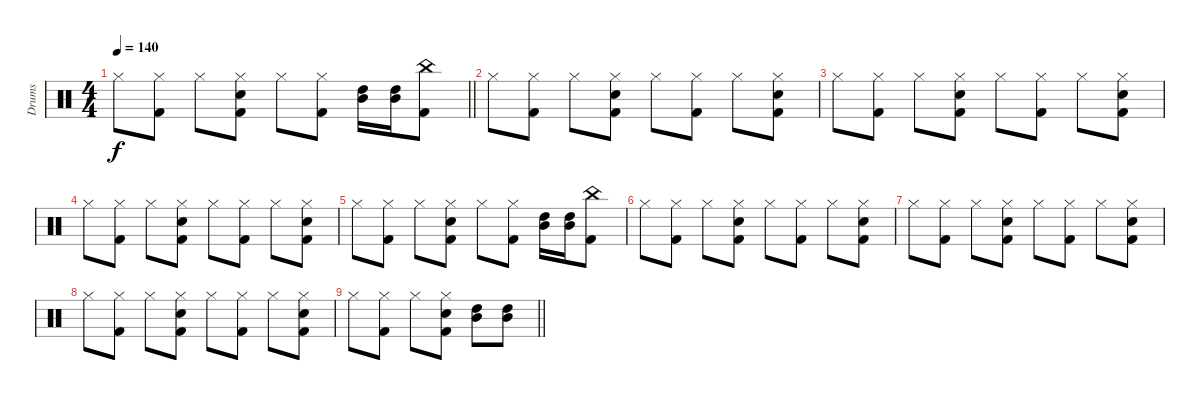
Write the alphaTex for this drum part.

\track ("Drums" "Drums") {instrument percussion}
\staff {score}
\articulation defaults
\ts (4 4)
\tempo 140
\clef neutral
\barLineRight lightlight
\ks c "Hi-Hat (closed)".8{dy f}
("Hi-Hat (closed)" "Kick (hit) 2").8 "Hi-Hat (closed)".8 ("Hi-Hat (closed)" "Snare (hit) 2" "Kick (hit) 2").8 "Hi-Hat (closed)".8 ("Hi-Hat (closed)" "Kick (hit) 2").8 ("Mid Tom (hit)" "High Tom (hit)").16 ("Mid Tom (hit)" "High Tom (hit)").16 ("China (hit)" "Kick (hit) 2").8 |
"Hi-Hat (closed)".8 ("Hi-Hat (closed)" "Kick (hit) 2").8 "Hi-Hat (closed)".8 ("Hi-Hat (closed)" "Snare (hit) 2" "Kick (hit) 2").8 "Hi-Hat (closed)".8 ("Hi-Hat (closed)" "Kick (hit) 2").8 "Hi-Hat (closed)".8 ("Hi-Hat (closed)" "Snare (hit) 2" "Kick (hit) 2").8 |
"Hi-Hat (closed)".8 ("Hi-Hat (closed)" "Kick (hit) 2").8 "Hi-Hat (closed)".8 ("Hi-Hat (closed)" "Snare (hit) 2" "Kick (hit) 2").8 "Hi-Hat (closed)".8 ("Hi-Hat (closed)" "Kick (hit) 2").8 "Hi-Hat (closed)".8 ("Hi-Hat (closed)" "Snare (hit) 2" "Kick (hit) 2").8 |
"Hi-Hat (closed)".8 ("Hi-Hat (closed)" "Kick (hit) 2").8 "Hi-Hat (closed)".8 ("Hi-Hat (closed)" "Snare (hit) 2" "Kick (hit) 2").8 "Hi-Hat (closed)".8 ("Hi-Hat (closed)" "Kick (hit) 2").8 "Hi-Hat (closed)".8 ("Hi-Hat (closed)" "Snare (hit) 2" "Kick (hit) 2").8 |
"Hi-Hat (closed)".8 ("Hi-Hat (closed)" "Kick (hit) 2").8 "Hi-Hat (closed)".8 ("Hi-Hat (closed)" "Snare (hit) 2" "Kick (hit) 2").8 "Hi-Hat (closed)".8 ("Hi-Hat (closed)" "Kick (hit) 2").8 ("Mid Tom (hit)" "High Tom (hit)").16 ("Mid Tom (hit)" "High Tom (hit)").16 ("China (hit)" "Kick (hit) 2").8 |
"Hi-Hat (closed)".8 ("Hi-Hat (closed)" "Kick (hit) 2").8 "Hi-Hat (closed)".8 ("Hi-Hat (closed)" "Snare (hit) 2" "Kick (hit) 2").8 "Hi-Hat (closed)".8 ("Hi-Hat (closed)" "Kick (hit) 2").8 "Hi-Hat (closed)".8 ("Hi-Hat (closed)" "Snare (hit) 2" "Kick (hit) 2").8 |
"Hi-Hat (closed)".8 ("Hi-Hat (closed)" "Kick (hit) 2").8 "Hi-Hat (closed)".8 ("Hi-Hat (closed)" "Snare (hit) 2" "Kick (hit) 2").8 "Hi-Hat (closed)".8 ("Hi-Hat (closed)" "Kick (hit) 2").8 "Hi-Hat (closed)".8 ("Hi-Hat (closed)" "Snare (hit) 2" "Kick (hit) 2").8 |
"Hi-Hat (closed)".8 ("Hi-Hat (closed)" "Kick (hit) 2").8 "Hi-Hat (closed)".8 ("Hi-Hat (closed)" "Snare (hit) 2" "Kick (hit) 2").8 "Hi-Hat (closed)".8 ("Hi-Hat (closed)" "Kick (hit) 2").8 "Hi-Hat (closed)".8 ("Hi-Hat (closed)" "Snare (hit) 2" "Kick (hit) 2").8 |
\barLineRight lightlight "Hi-Hat (closed)".8
("Hi-Hat (closed)" "Kick (hit) 2").8 "Hi-Hat (closed)".8 ("Hi-Hat (closed)" "Snare (hit) 2" "Kick (hit) 2").8 ("High Tom (hit)" "Mid Tom (hit)").8 ("High Tom (hit)" "Mid Tom (hit)").8
